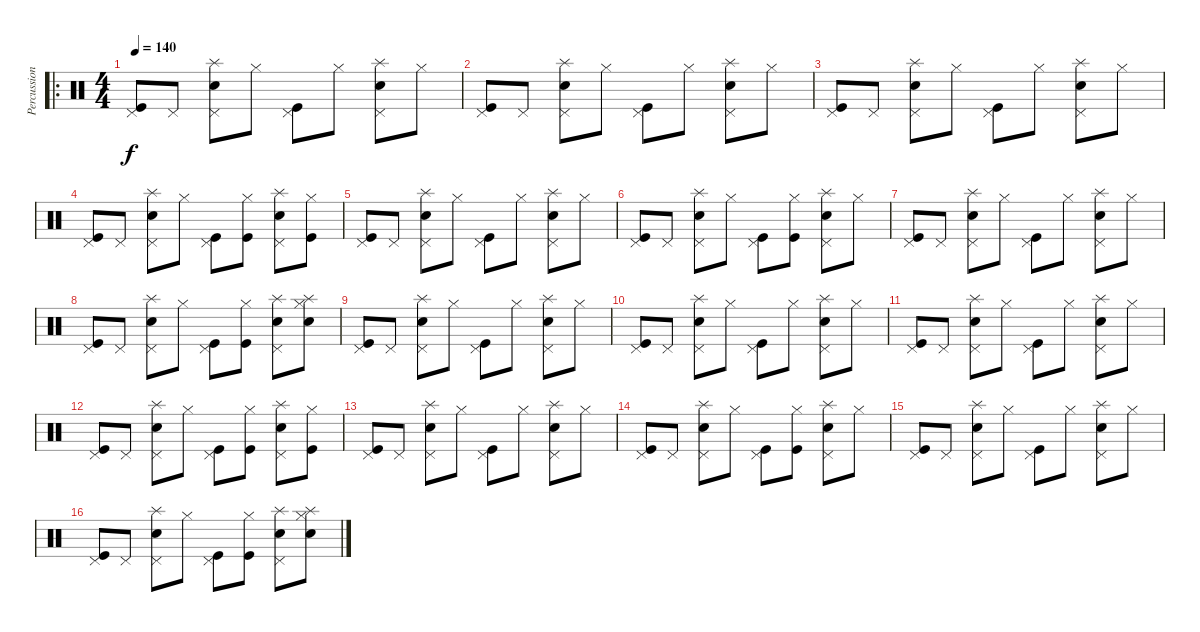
\track ("Percussion" "Percussion") {instrument percussion}
\staff {score}
\articulation defaults
\ro
\ts (4 4)
\tempo 140
\clef neutral
\ks c
("Pedal Hi-Hat (hit)" "Kick (hit)").8{dy f} "Pedal Hi-Hat (hit)".8 ("Pedal Hi-Hat (hit)" "Splash (hit)" "Electric Snare (hit)").8 "Hi-Hat (closed)".8 ("Pedal Hi-Hat (hit)" "Kick (hit)").8 "Hi-Hat (closed)".8 ("Pedal Hi-Hat (hit)" "Splash (hit)" "Electric Snare (hit)").8 "Hi-Hat (closed)".8 |
("Pedal Hi-Hat (hit)" "Kick (hit)").8 "Pedal Hi-Hat (hit)".8 ("Pedal Hi-Hat (hit)" "Splash (hit)" "Electric Snare (hit)").8 "Hi-Hat (closed)".8 ("Pedal Hi-Hat (hit)" "Kick (hit)").8 "Hi-Hat (closed)".8 ("Pedal Hi-Hat (hit)" "Splash (hit)" "Electric Snare (hit)").8 "Hi-Hat (closed)".8 |
("Pedal Hi-Hat (hit)" "Kick (hit)").8 "Pedal Hi-Hat (hit)".8 ("Pedal Hi-Hat (hit)" "Splash (hit)" "Electric Snare (hit)").8 "Hi-Hat (closed)".8 ("Pedal Hi-Hat (hit)" "Kick (hit)").8 "Hi-Hat (closed)".8 ("Pedal Hi-Hat (hit)" "Splash (hit)" "Electric Snare (hit)").8 "Hi-Hat (closed)".8 |
("Pedal Hi-Hat (hit)" "Kick (hit)").8 "Pedal Hi-Hat (hit)".8 ("Pedal Hi-Hat (hit)" "Splash (hit)" "Electric Snare (hit)").8 "Hi-Hat (closed)".8 ("Pedal Hi-Hat (hit)" "Kick (hit)").8 ("Hi-Hat (closed)" "Kick (hit)").8 ("Pedal Hi-Hat (hit)" "Splash (hit)" "Electric Snare (hit)").8 ("Hi-Hat (closed)" "Kick (hit)").8 |
("Pedal Hi-Hat (hit)" "Kick (hit)").8 "Pedal Hi-Hat (hit)".8 ("Pedal Hi-Hat (hit)" "Splash (hit)" "Electric Snare (hit)").8 "Hi-Hat (closed)".8 ("Pedal Hi-Hat (hit)" "Kick (hit)").8 "Hi-Hat (closed)".8 ("Pedal Hi-Hat (hit)" "Splash (hit)" "Electric Snare (hit)").8 "Hi-Hat (closed)".8 |
("Pedal Hi-Hat (hit)" "Kick (hit)").8 "Pedal Hi-Hat (hit)".8 ("Pedal Hi-Hat (hit)" "Splash (hit)" "Electric Snare (hit)").8 "Hi-Hat (closed)".8 ("Pedal Hi-Hat (hit)" "Kick (hit)").8 ("Hi-Hat (closed)" "Kick (hit)").8 ("Pedal Hi-Hat (hit)" "Splash (hit)" "Electric Snare (hit)").8 "Hi-Hat (closed)".8 |
("Pedal Hi-Hat (hit)" "Kick (hit)").8 "Pedal Hi-Hat (hit)".8 ("Pedal Hi-Hat (hit)" "Splash (hit)" "Electric Snare (hit)").8 "Hi-Hat (closed)".8 ("Pedal Hi-Hat (hit)" "Kick (hit)").8 "Hi-Hat (closed)".8 ("Pedal Hi-Hat (hit)" "Splash (hit)" "Electric Snare (hit)").8 "Hi-Hat (closed)".8 |
("Pedal Hi-Hat (hit)" "Kick (hit)").8 "Pedal Hi-Hat (hit)".8 ("Pedal Hi-Hat (hit)" "Splash (hit)" "Electric Snare (hit)").8 "Hi-Hat (closed)".8 ("Pedal Hi-Hat (hit)" "Kick (hit)").8 ("Hi-Hat (closed)" "Kick (hit)").8 ("Pedal Hi-Hat (hit)" "Splash (hit)" "Electric Snare (hit)").8 ("Hi-Hat (closed)" "Splash (hit)" "Electric Snare (hit)").8 |
("Pedal Hi-Hat (hit)" "Kick (hit)").8 "Pedal Hi-Hat (hit)".8 ("Pedal Hi-Hat (hit)" "Splash (hit)" "Electric Snare (hit)").8 "Hi-Hat (closed)".8 ("Pedal Hi-Hat (hit)" "Kick (hit)").8 "Hi-Hat (closed)".8 ("Pedal Hi-Hat (hit)" "Splash (hit)" "Electric Snare (hit)").8 "Hi-Hat (closed)".8 |
("Pedal Hi-Hat (hit)" "Kick (hit)").8 "Pedal Hi-Hat (hit)".8 ("Pedal Hi-Hat (hit)" "Splash (hit)" "Electric Snare (hit)").8 "Hi-Hat (closed)".8 ("Pedal Hi-Hat (hit)" "Kick (hit)").8 "Hi-Hat (closed)".8 ("Pedal Hi-Hat (hit)" "Splash (hit)" "Electric Snare (hit)").8 "Hi-Hat (closed)".8 |
("Pedal Hi-Hat (hit)" "Kick (hit)").8 "Pedal Hi-Hat (hit)".8 ("Pedal Hi-Hat (hit)" "Splash (hit)" "Electric Snare (hit)").8 "Hi-Hat (closed)".8 ("Pedal Hi-Hat (hit)" "Kick (hit)").8 "Hi-Hat (closed)".8 ("Pedal Hi-Hat (hit)" "Splash (hit)" "Electric Snare (hit)").8 "Hi-Hat (closed)".8 |
("Pedal Hi-Hat (hit)" "Kick (hit)").8 "Pedal Hi-Hat (hit)".8 ("Pedal Hi-Hat (hit)" "Splash (hit)" "Electric Snare (hit)").8 "Hi-Hat (closed)".8 ("Pedal Hi-Hat (hit)" "Kick (hit)").8 ("Hi-Hat (closed)" "Kick (hit)").8 ("Pedal Hi-Hat (hit)" "Splash (hit)" "Electric Snare (hit)").8 ("Hi-Hat (closed)" "Kick (hit)").8 |
("Pedal Hi-Hat (hit)" "Kick (hit)").8 "Pedal Hi-Hat (hit)".8 ("Pedal Hi-Hat (hit)" "Splash (hit)" "Electric Snare (hit)").8 "Hi-Hat (closed)".8 ("Pedal Hi-Hat (hit)" "Kick (hit)").8 "Hi-Hat (closed)".8 ("Pedal Hi-Hat (hit)" "Splash (hit)" "Electric Snare (hit)").8 "Hi-Hat (closed)".8 |
("Pedal Hi-Hat (hit)" "Kick (hit)").8 "Pedal Hi-Hat (hit)".8 ("Pedal Hi-Hat (hit)" "Splash (hit)" "Electric Snare (hit)").8 "Hi-Hat (closed)".8 ("Pedal Hi-Hat (hit)" "Kick (hit)").8 ("Hi-Hat (closed)" "Kick (hit)").8 ("Pedal Hi-Hat (hit)" "Splash (hit)" "Electric Snare (hit)").8 "Hi-Hat (closed)".8 |
("Pedal Hi-Hat (hit)" "Kick (hit)").8 "Pedal Hi-Hat (hit)".8 ("Pedal Hi-Hat (hit)" "Splash (hit)" "Electric Snare (hit)").8 "Hi-Hat (closed)".8 ("Pedal Hi-Hat (hit)" "Kick (hit)").8 "Hi-Hat (closed)".8 ("Pedal Hi-Hat (hit)" "Splash (hit)" "Electric Snare (hit)").8 "Hi-Hat (closed)".8 |
("Pedal Hi-Hat (hit)" "Kick (hit)").8 "Pedal Hi-Hat (hit)".8 ("Pedal Hi-Hat (hit)" "Splash (hit)" "Electric Snare (hit)").8 "Hi-Hat (closed)".8 ("Pedal Hi-Hat (hit)" "Kick (hit)").8 ("Hi-Hat (closed)" "Kick (hit)").8 ("Pedal Hi-Hat (hit)" "Splash (hit)" "Electric Snare (hit)").8 ("Hi-Hat (closed)" "Splash (hit)" "Electric Snare (hit)").8
